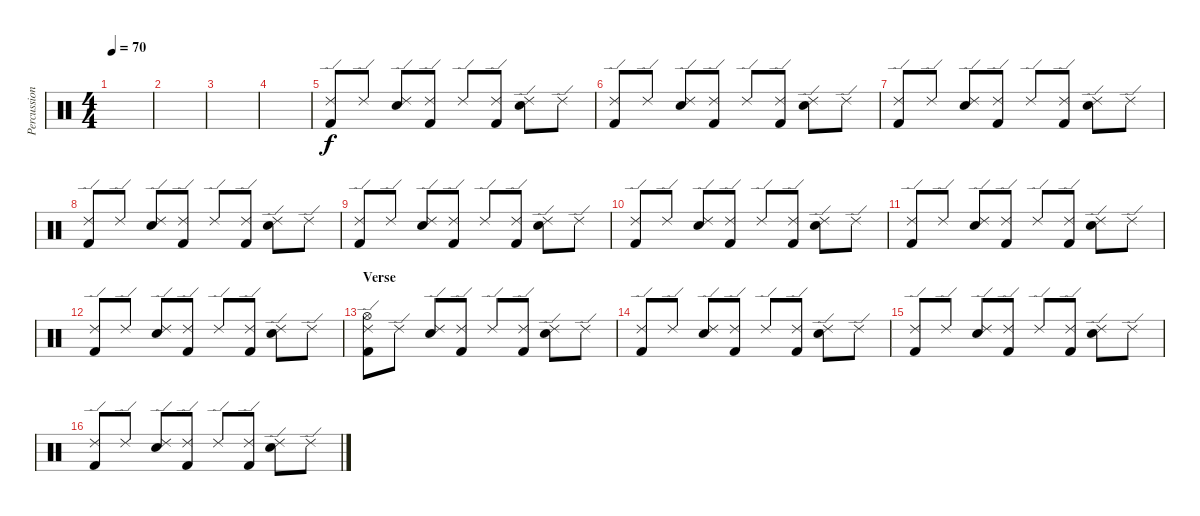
\track ("Percussion" "Percussion") {instrument percussion}
\staff {score}
\articulation defaults
\ts (4 4)
\tempo 70
\clef neutral
\ks c
|
|
|
|
("Ride (edge) 2" "Kick (hit) 2").8 "Ride (edge) 2".8 ("Ride (edge) 2" "Electric Snare (hit)").8 ("Ride (edge) 2" "Kick (hit) 2").8 "Ride (edge) 2".8 ("Ride (edge) 2" "Kick (hit) 2").8 ("Ride (edge) 2" "Electric Snare (hit)").8 "Ride (edge) 2".8 |
("Ride (edge) 2" "Kick (hit) 2").8 "Ride (edge) 2".8 ("Ride (edge) 2" "Electric Snare (hit)").8 ("Ride (edge) 2" "Kick (hit) 2").8 "Ride (edge) 2".8 ("Ride (edge) 2" "Kick (hit) 2").8 ("Ride (edge) 2" "Electric Snare (hit)").8 "Ride (edge) 2".8 |
("Ride (edge) 2" "Kick (hit) 2").8 "Ride (edge) 2".8 ("Ride (edge) 2" "Electric Snare (hit)").8 ("Ride (edge) 2" "Kick (hit) 2").8 "Ride (edge) 2".8 ("Ride (edge) 2" "Kick (hit) 2").8 ("Ride (edge) 2" "Electric Snare (hit)").8 "Ride (edge) 2".8 |
("Ride (edge) 2" "Kick (hit) 2").8 "Ride (edge) 2".8 ("Ride (edge) 2" "Electric Snare (hit)").8 ("Ride (edge) 2" "Kick (hit) 2").8 "Ride (edge) 2".8 ("Ride (edge) 2" "Kick (hit) 2").8 ("Ride (edge) 2" "Electric Snare (hit)").8 "Ride (edge) 2".8 |
("Ride (edge) 2" "Kick (hit) 2").8 "Ride (edge) 2".8 ("Ride (edge) 2" "Electric Snare (hit)").8 ("Ride (edge) 2" "Kick (hit) 2").8 "Ride (edge) 2".8 ("Ride (edge) 2" "Kick (hit) 2").8 ("Ride (edge) 2" "Electric Snare (hit)").8 "Ride (edge) 2".8 |
("Ride (edge) 2" "Kick (hit) 2").8 "Ride (edge) 2".8 ("Ride (edge) 2" "Electric Snare (hit)").8 ("Ride (edge) 2" "Kick (hit) 2").8 "Ride (edge) 2".8 ("Ride (edge) 2" "Kick (hit) 2").8 ("Ride (edge) 2" "Electric Snare (hit)").8 "Ride (edge) 2".8 |
("Ride (edge) 2" "Kick (hit) 2").8 "Ride (edge) 2".8 ("Ride (edge) 2" "Electric Snare (hit)").8 ("Ride (edge) 2" "Kick (hit) 2").8 "Ride (edge) 2".8 ("Ride (edge) 2" "Kick (hit) 2").8 ("Ride (edge) 2" "Electric Snare (hit)").8 "Ride (edge) 2".8 |
("Ride (edge) 2" "Kick (hit) 2").8 "Ride (edge) 2".8 ("Ride (edge) 2" "Electric Snare (hit)").8 ("Ride (edge) 2" "Kick (hit) 2").8 "Ride (edge) 2".8 ("Ride (edge) 2" "Kick (hit) 2").8 ("Ride (edge) 2" "Electric Snare (hit)").8 "Ride (edge) 2".8 |
\section ("" "Verse")
("Ride (edge) 2" "Hi-Hat (open)" "Kick (hit) 2").8 "Ride (edge) 2".8 ("Ride (edge) 2" "Electric Snare (hit)").8 ("Ride (edge) 2" "Kick (hit) 2").8 "Ride (edge) 2".8 ("Ride (edge) 2" "Kick (hit) 2").8 ("Ride (edge) 2" "Electric Snare (hit)").8 "Ride (edge) 2".8 |
("Ride (edge) 2" "Kick (hit) 2").8 "Ride (edge) 2".8 ("Ride (edge) 2" "Electric Snare (hit)").8 ("Ride (edge) 2" "Kick (hit) 2").8 "Ride (edge) 2".8 ("Ride (edge) 2" "Kick (hit) 2").8 ("Ride (edge) 2" "Electric Snare (hit)").8 "Ride (edge) 2".8 |
("Ride (edge) 2" "Kick (hit) 2").8 "Ride (edge) 2".8 ("Ride (edge) 2" "Electric Snare (hit)").8 ("Ride (edge) 2" "Kick (hit) 2").8 "Ride (edge) 2".8 ("Ride (edge) 2" "Kick (hit) 2").8 ("Ride (edge) 2" "Electric Snare (hit)").8 "Ride (edge) 2".8 |
("Ride (edge) 2" "Kick (hit) 2").8 "Ride (edge) 2".8 ("Ride (edge) 2" "Electric Snare (hit)").8 ("Ride (edge) 2" "Kick (hit) 2").8 "Ride (edge) 2".8 ("Ride (edge) 2" "Kick (hit) 2").8 ("Ride (edge) 2" "Electric Snare (hit)").8 "Ride (edge) 2".8
